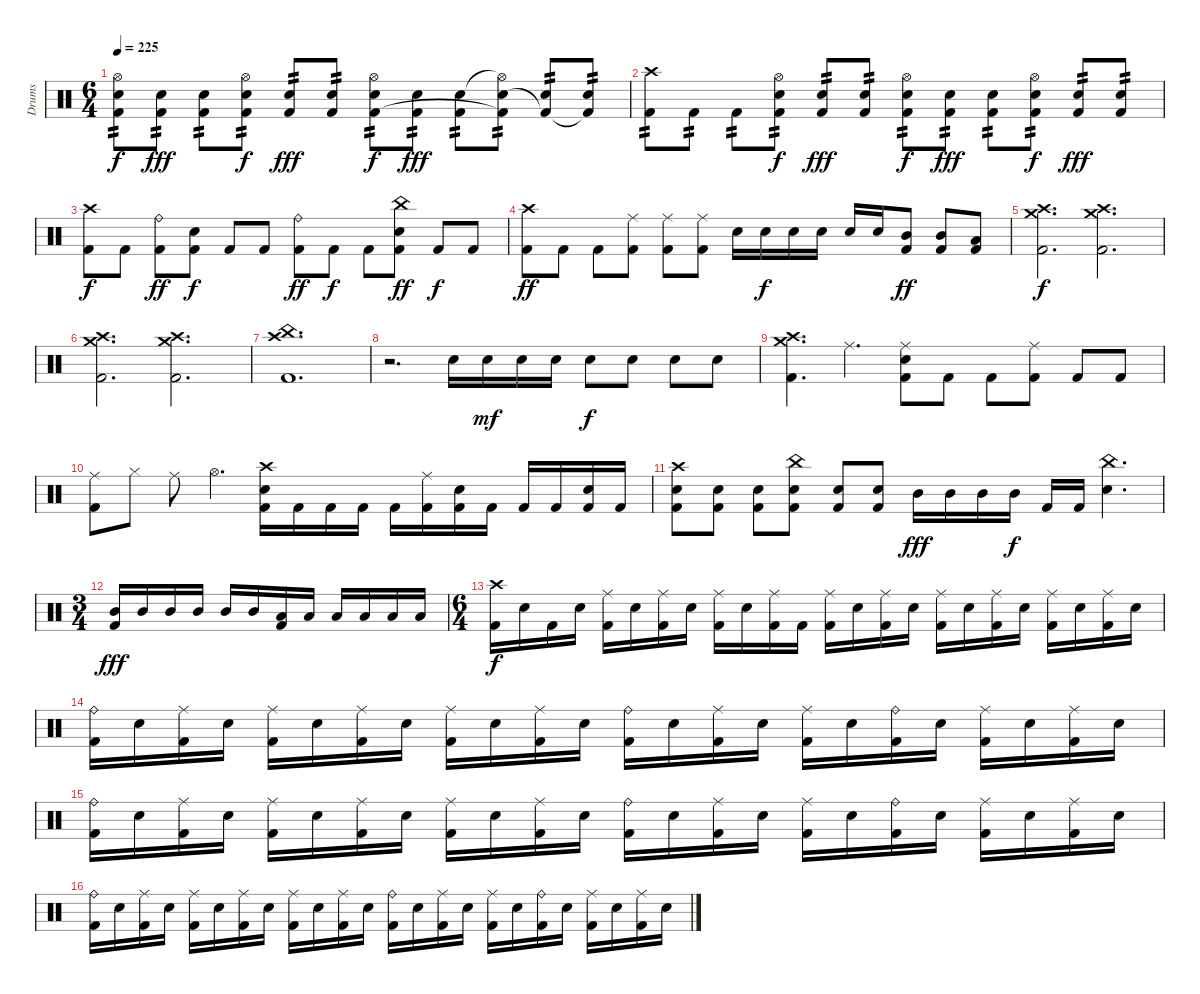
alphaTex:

\track ("Drums" "Drums") {instrument percussion}
\staff {score}
\articulation defaults
\ts (6 4)
\tempo 225
\clef neutral
\ks c
("Hi-Hat (open)" "Snare (hit) 2" "Kick (hit) 2").8{tp 2 dy f} ("Snare (hit) 2" "Kick (hit) 2").8{tp 2 dy fff} ("Snare (hit) 2" "Kick (hit) 2").8{tp 2} ("Hi-Hat (open)" "Snare (hit) 2" "Kick (hit) 2").8{tp 2 dy f} ("Snare (hit) 2" "Kick (hit) 2").8{tp 2 dy fff} ("Snare (hit) 2" "Kick (hit) 2").8{tp 2} ("Hi-Hat (open)" "Snare (hit) 2" "Kick (hit) 2").8{tp 2 dy f} ("Snare (hit) 2" "Kick (hit) 2").8{tp 2 dy fff} ("Snare (hit) 2" "Kick (hit) 2").8{tp 2} ("Hi-Hat (open)"{t} "Snare (hit) 2" "Kick (hit) 2"{t}).8{tp 2} ("Snare (hit) 2" "Kick (hit) 2"{t}).8{tp 2} ("Snare (hit) 2" "Kick (hit) 2"{t}).8{tp 2} |
("Crash high (hit)" "Kick (hit) 2").8{tp 2} "Kick (hit) 2".8{tp 2} "Kick (hit) 2".8{tp 2} ("Hi-Hat (open)" "Snare (hit) 2" "Kick (hit) 2").8{tp 2 dy f} ("Snare (hit) 2" "Kick (hit) 2").8{tp 2 dy fff} ("Snare (hit) 2" "Kick (hit) 2").8{tp 2} ("Hi-Hat (open)" "Snare (hit) 2" "Kick (hit) 2").8{tp 2 dy f} ("Snare (hit) 2" "Kick (hit) 2").8{tp 2 dy fff} ("Snare (hit) 2" "Kick (hit) 2").8{tp 2} ("Hi-Hat (open)" "Snare (hit) 2" "Kick (hit) 2").8{tp 2 dy f} ("Snare (hit) 2" "Kick (hit) 2").8{tp 2 dy fff} ("Snare (hit) 2" "Kick (hit) 2").8{tp 2} |
("Crash high (hit)" "Kick (hit) 2").8{dy f} "Kick (hit) 2".8 ("Ride (bell)" "Kick (hit) 2").8{dy ff} ("Snare (hit) 2" "Kick (hit) 2").8{dy f} "Kick (hit) 2".8 "Kick (hit) 2".8 ("Ride (bell)" "Kick (hit) 2").8{dy ff} "Kick (hit) 2".8{dy f} "Kick (hit) 2".8 ("China (hit)" "Snare (hit) 2" "Kick (hit) 2").8{dy ff} "Kick (hit) 2".8{dy f} "Kick (hit) 2".8 |
("Crash high (hit)" "Kick (hit) 2").8{dy ff} "Kick (hit) 2".8 "Kick (hit) 2".8 ("Ride (middle)" "Kick (hit) 2").8 ("Ride (middle)" "Kick (hit) 2").8 ("Ride (middle)" "Kick (hit) 2").8 "Snare (hit) 2".16 "Snare (hit) 2".16{dy f} "Snare (hit) 2".16 "Snare (hit) 2".16 "Snare (hit) 2".16 "Snare (hit) 2".16 ("Mid Tom (hit)" "Kick (hit) 2").8{dy ff} ("Mid Tom (hit)" "Kick (hit) 2").8 ("Low Tom (hit)" "Kick (hit) 2").8 |
("Crash medium (hit)" "Crash high (hit)" "Kick (hit) 2").2{d dy f} ("Crash medium (hit)" "Crash high (hit)" "Kick (hit) 2").2{d} |
("Crash medium (hit)" "Crash high (hit)" "Kick (hit) 2").2{d} ("Crash high (hit)" "Crash medium (hit)" "Kick (hit) 2").2{d} |
("China (hit)" "Crash high (hit)" "Kick (hit) 2").1{d} |
r.2{d} "Snare (hit) 2".16 "Snare (hit) 2".16{dy mf} "Snare (hit) 2".16 "Snare (hit) 2".16 "Snare (hit) 2".8{dy f} "Snare (hit) 2".8 "Snare (hit) 2".8 "Snare (hit) 2".8 |
("Crash high (hit)" "Crash medium (hit)" "Kick (hit) 2").4{d} "Ride (middle)".4{d} ("Ride (middle)" "Snare (hit) 2" "Kick (hit) 2").8 "Kick (hit) 2".8 "Kick (hit) 2".8 ("Ride (middle)" "Kick (hit) 2").8 "Kick (hit) 2".8 "Kick (hit) 2".8 |
("Ride (middle)" "Kick (hit) 2").8 "Hi-Hat (closed)".8 "Ride (middle)".8 "Hi-Hat (open)".4{d} ("Crash high (hit)" "Snare (hit) 2" "Kick (hit) 2").16 "Kick (hit) 2".16 "Kick (hit) 2".16 "Kick (hit) 2".16 "Kick (hit) 2".16 ("Ride (middle)" "Kick (hit) 2").16 ("Snare (hit) 2" "Kick (hit) 2").16 "Kick (hit) 2".16 "Kick (hit) 2".16 "Kick (hit) 2".16 ("Snare (hit) 2" "Kick (hit) 2").16 "Kick (hit) 2".16 |
("Crash high (hit)" "Snare (hit) 2" "Kick (hit) 2").8 ("Snare (hit) 2" "Kick (hit) 2").8 ("Snare (hit) 2" "Kick (hit) 2").8 ("China (hit)" "Snare (hit) 2" "Kick (hit) 2").8 ("Snare (hit) 2" "Kick (hit) 2").8 ("Snare (hit) 2" "Kick (hit) 2").8 "Mid Tom (hit)".16{dy fff} "Mid Tom (hit)".16 "Mid Tom (hit)".16 "Mid Tom (hit)".16{dy f} "Kick (hit) 2".16 "Kick (hit) 2".16 ("China (hit)" "Snare (hit) 2").4{d} |
\ts (3 4)
("Mid Tom (hit)" "Kick (hit) 2").16{dy fff} "Mid Tom (hit)".16 "Mid Tom (hit)".16 "Mid Tom (hit)".16 "Mid Tom (hit)".16 "Mid Tom (hit)".16 ("Low Tom (hit)" "Kick (hit) 2").16 "Low Tom (hit)".16 "Low Tom (hit)".16 "Low Tom (hit)".16 "Low Tom (hit)".16 "Low Tom (hit)".16 |
\ts (6 4)
("Crash high (hit)" "Kick (hit) 2").16{dy f} "Snare (hit) 2".16 "Kick (hit) 2".16 "Snare (hit) 2".16 ("Ride (middle)" "Kick (hit) 2").16 "Snare (hit) 2".16 ("Ride (middle)" "Kick (hit) 2").16 "Snare (hit) 2".16 ("Ride (middle)" "Kick (hit) 2").16 "Snare (hit) 2".16 ("Ride (middle)" "Kick (hit) 2").16 "Kick (hit) 2".16 ("Ride (middle)" "Kick (hit) 2").16 "Snare (hit) 2".16 ("Ride (middle)" "Kick (hit) 2").16 "Snare (hit) 2".16 ("Ride (middle)" "Kick (hit) 2").16 "Snare (hit) 2".16 ("Ride (middle)" "Kick (hit) 2").16 "Snare (hit) 2".16 ("Ride (middle)" "Kick (hit) 2").16 "Snare (hit) 2".16 ("Ride (middle)" "Kick (hit) 2").16 "Snare (hit) 2".16 |
("Ride (bell)" "Kick (hit) 2").16 "Snare (hit) 2".16 ("Ride (middle)" "Kick (hit) 2").16 "Snare (hit) 2".16 ("Ride (middle)" "Kick (hit) 2").16 "Snare (hit) 2".16 ("Ride (middle)" "Kick (hit) 2").16 "Snare (hit) 2".16 ("Ride (middle)" "Kick (hit) 2").16 "Snare (hit) 2".16 ("Ride (middle)" "Kick (hit) 2").16 "Snare (hit) 2".16 ("Ride (bell)" "Kick (hit) 2").16 "Snare (hit) 2".16 ("Ride (middle)" "Kick (hit) 2").16 "Snare (hit) 2".16 ("Ride (middle)" "Kick (hit) 2").16 "Snare (hit) 2".16 ("Ride (bell)" "Kick (hit) 2").16 "Snare (hit) 2".16 ("Ride (middle)" "Kick (hit) 2").16 "Snare (hit) 2".16 ("Ride (middle)" "Kick (hit) 2").16 "Snare (hit) 2".16 |
("Ride (bell)" "Kick (hit) 2").16 "Snare (hit) 2".16 ("Ride (middle)" "Kick (hit) 2").16 "Snare (hit) 2".16 ("Ride (middle)" "Kick (hit) 2").16 "Snare (hit) 2".16 ("Ride (middle)" "Kick (hit) 2").16 "Snare (hit) 2".16 ("Ride (middle)" "Kick (hit) 2").16 "Snare (hit) 2".16 ("Ride (middle)" "Kick (hit) 2").16 "Snare (hit) 2".16 ("Ride (bell)" "Kick (hit) 2").16 "Snare (hit) 2".16 ("Ride (middle)" "Kick (hit) 2").16 "Snare (hit) 2".16 ("Ride (middle)" "Kick (hit) 2").16 "Snare (hit) 2".16 ("Ride (bell)" "Kick (hit) 2").16 "Snare (hit) 2".16 ("Ride (middle)" "Kick (hit) 2").16 "Snare (hit) 2".16 ("Ride (middle)" "Kick (hit) 2").16 "Snare (hit) 2".16 |
("Ride (bell)" "Kick (hit) 2").16 "Snare (hit) 2".16 ("Ride (middle)" "Kick (hit) 2").16 "Snare (hit) 2".16 ("Ride (middle)" "Kick (hit) 2").16 "Snare (hit) 2".16 ("Ride (middle)" "Kick (hit) 2").16 "Snare (hit) 2".16 ("Ride (middle)" "Kick (hit) 2").16 "Snare (hit) 2".16 ("Ride (middle)" "Kick (hit) 2").16 "Snare (hit) 2".16 ("Ride (bell)" "Kick (hit) 2").16 "Snare (hit) 2".16 ("Ride (middle)" "Kick (hit) 2").16 "Snare (hit) 2".16 ("Ride (middle)" "Kick (hit) 2").16 "Snare (hit) 2".16 ("Ride (bell)" "Kick (hit) 2").16 "Snare (hit) 2".16 ("Ride (middle)" "Kick (hit) 2").16 "Snare (hit) 2".16 ("Ride (middle)" "Kick (hit) 2").16 "Snare (hit) 2".16
